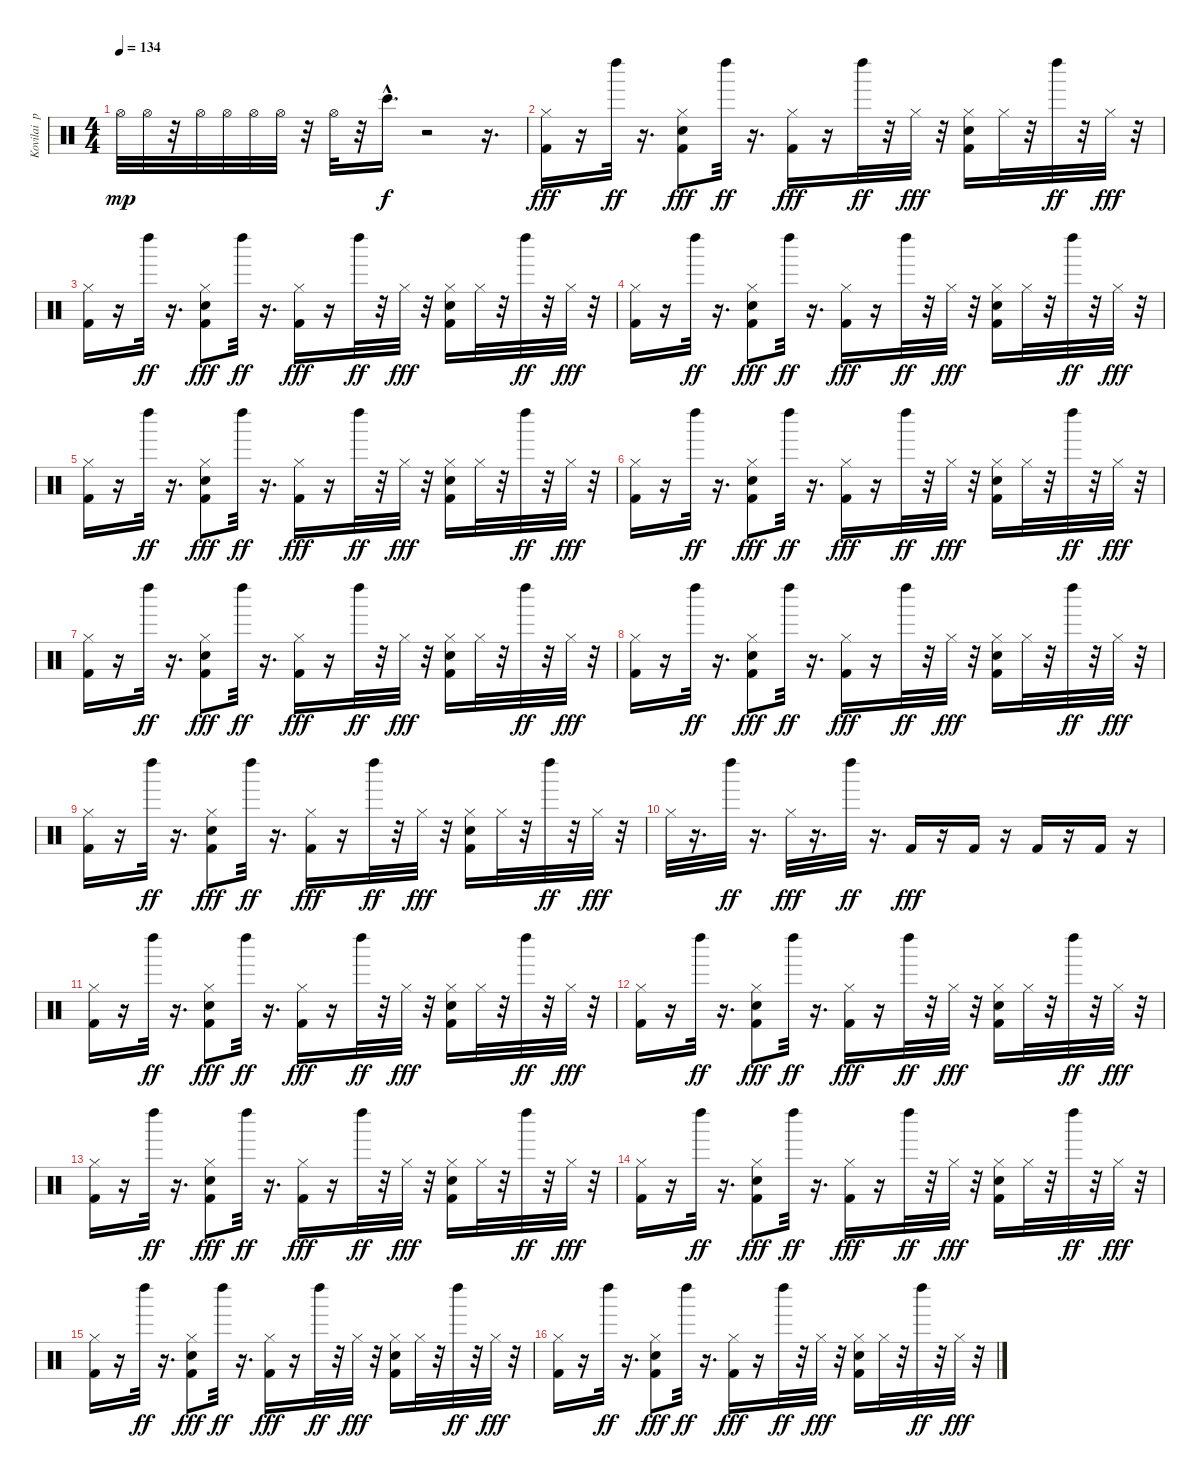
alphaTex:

\track ("Kovilai  po tihonechky:" "Kovilai  p") {instrument percussion}
\staff {score}
\articulation defaults
\ts (4 4)
\tempo 134
\clef neutral
\ks c "Hi-Hat (open)".32{dy mp} "Hi-Hat (open)".32
r.32 "Hi-Hat (open)".32 "Hi-Hat (open)".32 "Hi-Hat (open)".32 "Hi-Hat (open)".32 r.32 "Hi-Hat (open)".32 r.32 "Bongo High (hit)"{hac}.16{d dy f} r.2 r.16{d} |
("Hi-Hat (closed)" "Kick (hit) 2").16{dy fff} r.16 "Left Maraca (hit)".32{dy ff} r.16{d} ("Snare (hit) 2" "Hi-Hat (closed)" "Kick (hit) 2").8{dy fff} "Left Maraca (hit)".32{dy ff} r.16{d} ("Hi-Hat (closed)" "Kick (hit) 2").16{dy fff} r.16 "Left Maraca (hit)".32{dy ff} r.32 "Hi-Hat (closed)".32{dy fff} r.32 ("Hi-Hat (closed)" "Snare (hit) 2" "Kick (hit) 2").16 "Hi-Hat (closed)".32 r.32 "Left Maraca (hit)".32{dy ff} r.32 "Hi-Hat (closed)".32{dy fff} r.32 |
("Hi-Hat (closed)" "Kick (hit) 2").16 r.16 "Left Maraca (hit)".32{dy ff} r.16{d} ("Snare (hit) 2" "Hi-Hat (closed)" "Kick (hit) 2").8{dy fff} "Left Maraca (hit)".32{dy ff} r.16{d} ("Hi-Hat (closed)" "Kick (hit) 2").16{dy fff} r.16 "Left Maraca (hit)".32{dy ff} r.32 "Hi-Hat (closed)".32{dy fff} r.32 ("Hi-Hat (closed)" "Snare (hit) 2" "Kick (hit) 2").16 "Hi-Hat (closed)".32 r.32 "Left Maraca (hit)".32{dy ff} r.32 "Hi-Hat (closed)".32{dy fff} r.32 |
("Hi-Hat (closed)" "Kick (hit) 2").16 r.16 "Left Maraca (hit)".32{dy ff} r.16{d} ("Snare (hit) 2" "Hi-Hat (closed)" "Kick (hit) 2").8{dy fff} "Left Maraca (hit)".32{dy ff} r.16{d} ("Hi-Hat (closed)" "Kick (hit) 2").16{dy fff} r.16 "Left Maraca (hit)".32{dy ff} r.32 "Hi-Hat (closed)".32{dy fff} r.32 ("Hi-Hat (closed)" "Snare (hit) 2" "Kick (hit) 2").16 "Hi-Hat (closed)".32 r.32 "Left Maraca (hit)".32{dy ff} r.32 "Hi-Hat (closed)".32{dy fff} r.32 |
("Hi-Hat (closed)" "Kick (hit) 2").16 r.16 "Left Maraca (hit)".32{dy ff} r.16{d} ("Snare (hit) 2" "Hi-Hat (closed)" "Kick (hit) 2").8{dy fff} "Left Maraca (hit)".32{dy ff} r.16{d} ("Hi-Hat (closed)" "Kick (hit) 2").16{dy fff} r.16 "Left Maraca (hit)".32{dy ff} r.32 "Hi-Hat (closed)".32{dy fff} r.32 ("Hi-Hat (closed)" "Snare (hit) 2" "Kick (hit) 2").16 "Hi-Hat (closed)".32 r.32 "Left Maraca (hit)".32{dy ff} r.32 "Hi-Hat (closed)".32{dy fff} r.32 |
("Hi-Hat (closed)" "Kick (hit) 2").16 r.16 "Left Maraca (hit)".32{dy ff} r.16{d} ("Snare (hit) 2" "Hi-Hat (closed)" "Kick (hit) 2").8{dy fff} "Left Maraca (hit)".32{dy ff} r.16{d} ("Hi-Hat (closed)" "Kick (hit) 2").16{dy fff} r.16 "Left Maraca (hit)".32{dy ff} r.32 "Hi-Hat (closed)".32{dy fff} r.32 ("Hi-Hat (closed)" "Snare (hit) 2" "Kick (hit) 2").16 "Hi-Hat (closed)".32 r.32 "Left Maraca (hit)".32{dy ff} r.32 "Hi-Hat (closed)".32{dy fff} r.32 |
("Hi-Hat (closed)" "Kick (hit) 2").16 r.16 "Left Maraca (hit)".32{dy ff} r.16{d} ("Snare (hit) 2" "Hi-Hat (closed)" "Kick (hit) 2").8{dy fff} "Left Maraca (hit)".32{dy ff} r.16{d} ("Hi-Hat (closed)" "Kick (hit) 2").16{dy fff} r.16 "Left Maraca (hit)".32{dy ff} r.32 "Hi-Hat (closed)".32{dy fff} r.32 ("Hi-Hat (closed)" "Snare (hit) 2" "Kick (hit) 2").16 "Hi-Hat (closed)".32 r.32 "Left Maraca (hit)".32{dy ff} r.32 "Hi-Hat (closed)".32{dy fff} r.32 |
("Hi-Hat (closed)" "Kick (hit) 2").16 r.16 "Left Maraca (hit)".32{dy ff} r.16{d} ("Snare (hit) 2" "Hi-Hat (closed)" "Kick (hit) 2").8{dy fff} "Left Maraca (hit)".32{dy ff} r.16{d} ("Hi-Hat (closed)" "Kick (hit) 2").16{dy fff} r.16 "Left Maraca (hit)".32{dy ff} r.32 "Hi-Hat (closed)".32{dy fff} r.32 ("Hi-Hat (closed)" "Snare (hit) 2" "Kick (hit) 2").16 "Hi-Hat (closed)".32 r.32 "Left Maraca (hit)".32{dy ff} r.32 "Hi-Hat (closed)".32{dy fff} r.32 |
("Hi-Hat (closed)" "Kick (hit) 2").16 r.16 "Left Maraca (hit)".32{dy ff} r.16{d} ("Snare (hit) 2" "Hi-Hat (closed)" "Kick (hit) 2").8{dy fff} "Left Maraca (hit)".32{dy ff} r.16{d} ("Hi-Hat (closed)" "Kick (hit) 2").16{dy fff} r.16 "Left Maraca (hit)".32{dy ff} r.32 "Hi-Hat (closed)".32{dy fff} r.32 ("Hi-Hat (closed)" "Snare (hit) 2" "Kick (hit) 2").16 "Hi-Hat (closed)".32 r.32 "Left Maraca (hit)".32{dy ff} r.32 "Hi-Hat (closed)".32{dy fff} r.32 |
"Hi-Hat (closed)".32 r.16{d} "Left Maraca (hit)".32{dy ff} r.16{d} "Hi-Hat (closed)".32{dy fff} r.16{d} "Left Maraca (hit)".32{dy ff} r.16{d} "Kick (hit) 2".16{dy fff} r.16 "Kick (hit) 2".16 r.16 "Kick (hit) 2".16 r.16 "Kick (hit) 2".16 r.16 |
("Hi-Hat (closed)" "Kick (hit) 2").16 r.16 "Left Maraca (hit)".32{dy ff} r.16{d} ("Snare (hit) 2" "Hi-Hat (closed)" "Kick (hit) 2").8{dy fff} "Left Maraca (hit)".32{dy ff} r.16{d} ("Hi-Hat (closed)" "Kick (hit) 2").16{dy fff} r.16 "Left Maraca (hit)".32{dy ff} r.32 "Hi-Hat (closed)".32{dy fff} r.32 ("Hi-Hat (closed)" "Snare (hit) 2" "Kick (hit) 2").16 "Hi-Hat (closed)".32 r.32 "Left Maraca (hit)".32{dy ff} r.32 "Hi-Hat (closed)".32{dy fff} r.32 |
("Hi-Hat (closed)" "Kick (hit) 2").16 r.16 "Left Maraca (hit)".32{dy ff} r.16{d} ("Snare (hit) 2" "Hi-Hat (closed)" "Kick (hit) 2").8{dy fff} "Left Maraca (hit)".32{dy ff} r.16{d} ("Hi-Hat (closed)" "Kick (hit) 2").16{dy fff} r.16 "Left Maraca (hit)".32{dy ff} r.32 "Hi-Hat (closed)".32{dy fff} r.32 ("Hi-Hat (closed)" "Snare (hit) 2" "Kick (hit) 2").16 "Hi-Hat (closed)".32 r.32 "Left Maraca (hit)".32{dy ff} r.32 "Hi-Hat (closed)".32{dy fff} r.32 |
("Hi-Hat (closed)" "Kick (hit) 2").16 r.16 "Left Maraca (hit)".32{dy ff} r.16{d} ("Snare (hit) 2" "Hi-Hat (closed)" "Kick (hit) 2").8{dy fff} "Left Maraca (hit)".32{dy ff} r.16{d} ("Hi-Hat (closed)" "Kick (hit) 2").16{dy fff} r.16 "Left Maraca (hit)".32{dy ff} r.32 "Hi-Hat (closed)".32{dy fff} r.32 ("Hi-Hat (closed)" "Snare (hit) 2" "Kick (hit) 2").16 "Hi-Hat (closed)".32 r.32 "Left Maraca (hit)".32{dy ff} r.32 "Hi-Hat (closed)".32{dy fff} r.32 |
("Hi-Hat (closed)" "Kick (hit) 2").16 r.16 "Left Maraca (hit)".32{dy ff} r.16{d} ("Snare (hit) 2" "Hi-Hat (closed)" "Kick (hit) 2").8{dy fff} "Left Maraca (hit)".32{dy ff} r.16{d} ("Hi-Hat (closed)" "Kick (hit) 2").16{dy fff} r.16 "Left Maraca (hit)".32{dy ff} r.32 "Hi-Hat (closed)".32{dy fff} r.32 ("Hi-Hat (closed)" "Snare (hit) 2" "Kick (hit) 2").16 "Hi-Hat (closed)".32 r.32 "Left Maraca (hit)".32{dy ff} r.32 "Hi-Hat (closed)".32{dy fff} r.32 |
("Hi-Hat (closed)" "Kick (hit) 2").16 r.16 "Left Maraca (hit)".32{dy ff} r.16{d} ("Snare (hit) 2" "Hi-Hat (closed)" "Kick (hit) 2").8{dy fff} "Left Maraca (hit)".32{dy ff} r.16{d} ("Hi-Hat (closed)" "Kick (hit) 2").16{dy fff} r.16 "Left Maraca (hit)".32{dy ff} r.32 "Hi-Hat (closed)".32{dy fff} r.32 ("Hi-Hat (closed)" "Snare (hit) 2" "Kick (hit) 2").16 "Hi-Hat (closed)".32 r.32 "Left Maraca (hit)".32{dy ff} r.32 "Hi-Hat (closed)".32{dy fff} r.32 |
("Hi-Hat (closed)" "Kick (hit) 2").16 r.16 "Left Maraca (hit)".32{dy ff} r.16{d} ("Snare (hit) 2" "Hi-Hat (closed)" "Kick (hit) 2").8{dy fff} "Left Maraca (hit)".32{dy ff} r.16{d} ("Hi-Hat (closed)" "Kick (hit) 2").16{dy fff} r.16 "Left Maraca (hit)".32{dy ff} r.32 "Hi-Hat (closed)".32{dy fff} r.32 ("Hi-Hat (closed)" "Snare (hit) 2" "Kick (hit) 2").16 "Hi-Hat (closed)".32 r.32 "Left Maraca (hit)".32{dy ff} r.32 "Hi-Hat (closed)".32{dy fff} r.32
